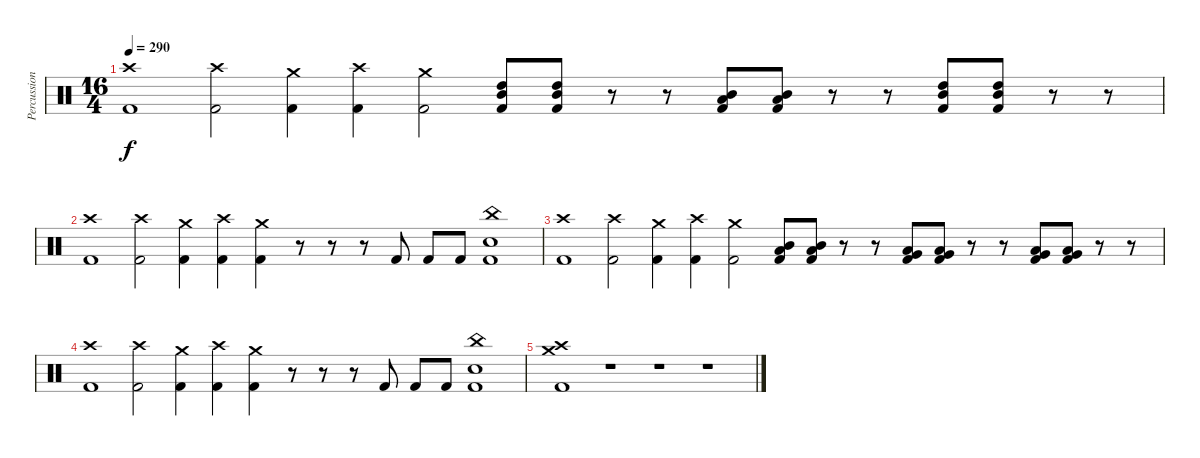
\track ("Percussion" "Percussion") {instrument percussion}
\staff {score}
\articulation defaults
\ts (16 4)
\tempo 290
\clef neutral
\ks c
("Crash high (hit)" "Kick (hit) 2").1{dy f} ("Crash high (hit)" "Kick (hit) 2").2 ("Crash medium (hit)" "Kick (hit) 2").4 ("Crash high (hit)" "Kick (hit) 2").4 ("Crash medium (hit)" "Kick (hit) 2").2 ("High Tom (hit)" "Mid Tom (hit)" "Kick (hit) 2").8 ("High Tom (hit)" "Mid Tom (hit)" "Kick (hit) 2").8 r.8 r.8 ("Mid Tom (hit)" "Low Tom (hit)" "Kick (hit) 2").8 ("Mid Tom (hit)" "Low Tom (hit)" "Kick (hit) 2").8 r.8 r.8 ("High Tom (hit)" "Mid Tom (hit)" "Kick (hit) 2").8 ("High Tom (hit)" "Mid Tom (hit)" "Kick (hit) 2").8 r.8 r.8 |
("Crash high (hit)" "Kick (hit) 2").1 ("Crash high (hit)" "Kick (hit) 2").2 ("Crash medium (hit)" "Kick (hit) 2").4 ("Crash high (hit)" "Kick (hit) 2").4 ("Crash medium (hit)" "Kick (hit) 2").4 r.8 r.8 r.8 "Kick (hit) 2".8 "Kick (hit) 2".8 "Kick (hit) 2".8 ("China (hit)" "Snare (hit) 2" "Kick (hit) 2").1 |
("Crash high (hit)" "Kick (hit) 2").1 ("Crash high (hit)" "Kick (hit) 2").2 ("Crash medium (hit)" "Kick (hit) 2").4 ("Crash high (hit)" "Kick (hit) 2").4 ("Crash medium (hit)" "Kick (hit) 2").2 ("Low Tom (hit)" "Mid Tom (hit)" "Kick (hit) 2").8 ("Low Tom (hit)" "Mid Tom (hit)" "Kick (hit) 2").8 r.8 r.8 ("Very Low Tom (hit)" "Low Tom (hit)" "Kick (hit) 2").8 ("Very Low Tom (hit)" "Low Tom (hit)" "Kick (hit) 2").8 r.8 r.8 ("Low Floor Tom (hit)" "Very Low Tom (hit)" "Kick (hit) 2").8 ("Low Floor Tom (hit)" "Very Low Tom (hit)" "Kick (hit) 2").8 r.8 r.8 |
("Crash high (hit)" "Kick (hit) 2").1 ("Crash high (hit)" "Kick (hit) 2").2 ("Crash medium (hit)" "Kick (hit) 2").4 ("Crash high (hit)" "Kick (hit) 2").4 ("Crash medium (hit)" "Kick (hit) 2").4 r.8 r.8 r.8 "Kick (hit) 2".8 "Kick (hit) 2".8 "Kick (hit) 2".8 ("China (hit)" "Snare (hit) 2" "Kick (hit) 2").1 |
("Crash high (hit)" "Crash medium (hit)" "Kick (hit) 2").1 r.1 r.1 r.1
